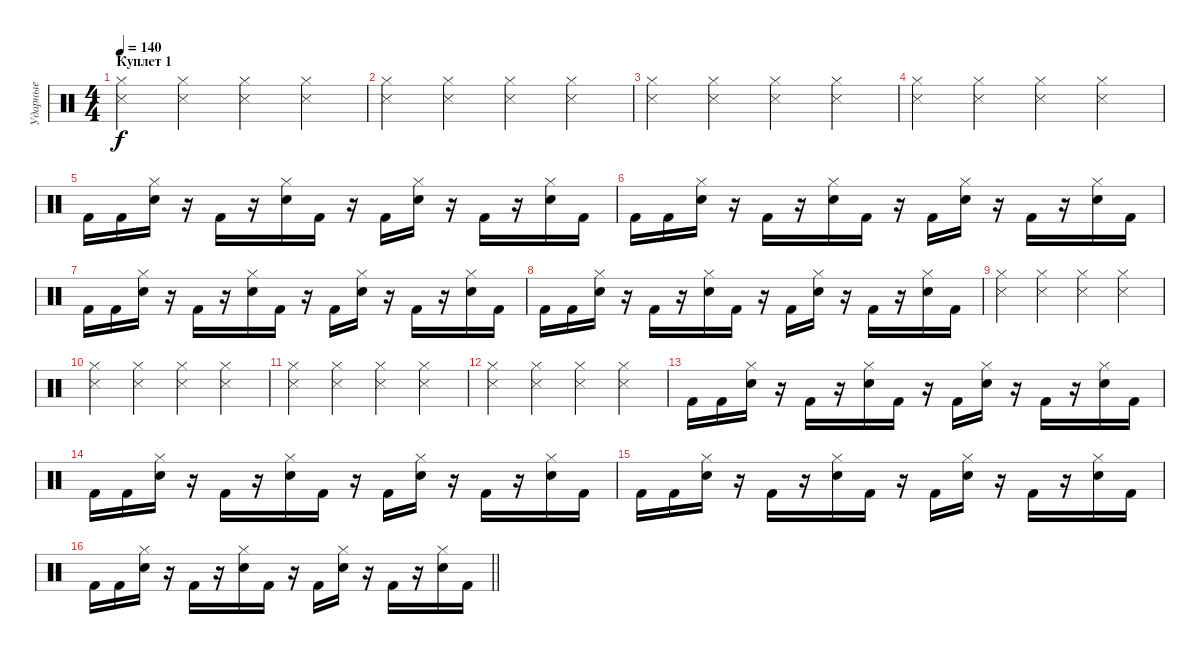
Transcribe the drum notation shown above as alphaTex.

\track ("Ударные" "Ударные") {instrument percussion}
\staff {score}
\articulation defaults
\ts (4 4)
\section ("" "Куплет 1")
\tempo 140
\clef neutral
\ks c
("Hi-Hat (closed)" "Snare (side stick) 3").4{dy f} ("Hi-Hat (closed)" "Snare (side stick) 3").4 ("Hi-Hat (closed)" "Snare (side stick) 3").4 ("Hi-Hat (closed)" "Snare (side stick) 3").4 |
("Hi-Hat (closed)" "Snare (side stick) 3").4 ("Hi-Hat (closed)" "Snare (side stick) 3").4 ("Hi-Hat (closed)" "Snare (side stick) 3").4 ("Hi-Hat (closed)" "Snare (side stick) 3").4 |
("Hi-Hat (closed)" "Snare (side stick) 3").4 ("Hi-Hat (closed)" "Snare (side stick) 3").4 ("Hi-Hat (closed)" "Snare (side stick) 3").4 ("Hi-Hat (closed)" "Snare (side stick) 3").4 |
("Hi-Hat (closed)" "Snare (side stick) 3").4 ("Hi-Hat (closed)" "Snare (side stick) 3").4 ("Hi-Hat (closed)" "Snare (side stick) 3").4 ("Hi-Hat (closed)" "Snare (side stick) 3").4 |
"Kick (hit) 2".16 "Kick (hit) 2".16 ("Snare (hit) 2" "Hi-Hat (closed)").16 r.16 "Kick (hit) 2".16 r.16 ("Snare (hit) 2" "Hi-Hat (closed)").16 "Kick (hit) 2".16 r.16 "Kick (hit) 2".16 ("Snare (hit) 2" "Hi-Hat (closed)").16 r.16 "Kick (hit) 2".16 r.16 ("Snare (hit) 2" "Hi-Hat (closed)").16 "Kick (hit) 2".16 |
"Kick (hit) 2".16 "Kick (hit) 2".16 ("Snare (hit) 2" "Hi-Hat (closed)").16 r.16 "Kick (hit) 2".16 r.16 ("Snare (hit) 2" "Hi-Hat (closed)").16 "Kick (hit) 2".16 r.16 "Kick (hit) 2".16 ("Snare (hit) 2" "Hi-Hat (closed)").16 r.16 "Kick (hit) 2".16 r.16 ("Snare (hit) 2" "Hi-Hat (closed)").16 "Kick (hit) 2".16 |
"Kick (hit) 2".16 "Kick (hit) 2".16 ("Snare (hit) 2" "Hi-Hat (closed)").16 r.16 "Kick (hit) 2".16 r.16 ("Snare (hit) 2" "Hi-Hat (closed)").16 "Kick (hit) 2".16 r.16 "Kick (hit) 2".16 ("Snare (hit) 2" "Hi-Hat (closed)").16 r.16 "Kick (hit) 2".16 r.16 ("Snare (hit) 2" "Hi-Hat (closed)").16 "Kick (hit) 2".16 |
"Kick (hit) 2".16 "Kick (hit) 2".16 ("Snare (hit) 2" "Hi-Hat (closed)").16 r.16 "Kick (hit) 2".16 r.16 ("Snare (hit) 2" "Hi-Hat (closed)").16 "Kick (hit) 2".16 r.16 "Kick (hit) 2".16 ("Snare (hit) 2" "Hi-Hat (closed)").16 r.16 "Kick (hit) 2".16 r.16 ("Snare (hit) 2" "Hi-Hat (closed)").16 "Kick (hit) 2".16 |
("Hi-Hat (closed)" "Snare (side stick) 3").4 ("Hi-Hat (closed)" "Snare (side stick) 3").4 ("Hi-Hat (closed)" "Snare (side stick) 3").4 ("Hi-Hat (closed)" "Snare (side stick) 3").4 |
("Hi-Hat (closed)" "Snare (side stick) 3").4 ("Hi-Hat (closed)" "Snare (side stick) 3").4 ("Hi-Hat (closed)" "Snare (side stick) 3").4 ("Hi-Hat (closed)" "Snare (side stick) 3").4 |
("Hi-Hat (closed)" "Snare (side stick) 3").4 ("Hi-Hat (closed)" "Snare (side stick) 3").4 ("Hi-Hat (closed)" "Snare (side stick) 3").4 ("Hi-Hat (closed)" "Snare (side stick) 3").4 |
("Hi-Hat (closed)" "Snare (side stick) 3").4 ("Hi-Hat (closed)" "Snare (side stick) 3").4 ("Hi-Hat (closed)" "Snare (side stick) 3").4 ("Hi-Hat (closed)" "Snare (side stick) 3").4 |
"Kick (hit) 2".16 "Kick (hit) 2".16 ("Snare (hit) 2" "Hi-Hat (closed)").16 r.16 "Kick (hit) 2".16 r.16 ("Snare (hit) 2" "Hi-Hat (closed)").16 "Kick (hit) 2".16 r.16 "Kick (hit) 2".16 ("Snare (hit) 2" "Hi-Hat (closed)").16 r.16 "Kick (hit) 2".16 r.16 ("Snare (hit) 2" "Hi-Hat (closed)").16 "Kick (hit) 2".16 |
"Kick (hit) 2".16 "Kick (hit) 2".16 ("Snare (hit) 2" "Hi-Hat (closed)").16 r.16 "Kick (hit) 2".16 r.16 ("Snare (hit) 2" "Hi-Hat (closed)").16 "Kick (hit) 2".16 r.16 "Kick (hit) 2".16 ("Snare (hit) 2" "Hi-Hat (closed)").16 r.16 "Kick (hit) 2".16 r.16 ("Snare (hit) 2" "Hi-Hat (closed)").16 "Kick (hit) 2".16 |
"Kick (hit) 2".16 "Kick (hit) 2".16 ("Snare (hit) 2" "Hi-Hat (closed)").16 r.16 "Kick (hit) 2".16 r.16 ("Snare (hit) 2" "Hi-Hat (closed)").16 "Kick (hit) 2".16 r.16 "Kick (hit) 2".16 ("Snare (hit) 2" "Hi-Hat (closed)").16 r.16 "Kick (hit) 2".16 r.16 ("Snare (hit) 2" "Hi-Hat (closed)").16 "Kick (hit) 2".16 |
\barLineRight lightlight "Kick (hit) 2".16 "Kick (hit) 2".16
("Snare (hit) 2" "Hi-Hat (closed)").16 r.16 "Kick (hit) 2".16 r.16 ("Snare (hit) 2" "Hi-Hat (closed)").16 "Kick (hit) 2".16 r.16 "Kick (hit) 2".16 ("Snare (hit) 2" "Hi-Hat (closed)").16 r.16 "Kick (hit) 2".16 r.16 ("Snare (hit) 2" "Hi-Hat (closed)").16 "Kick (hit) 2".16
